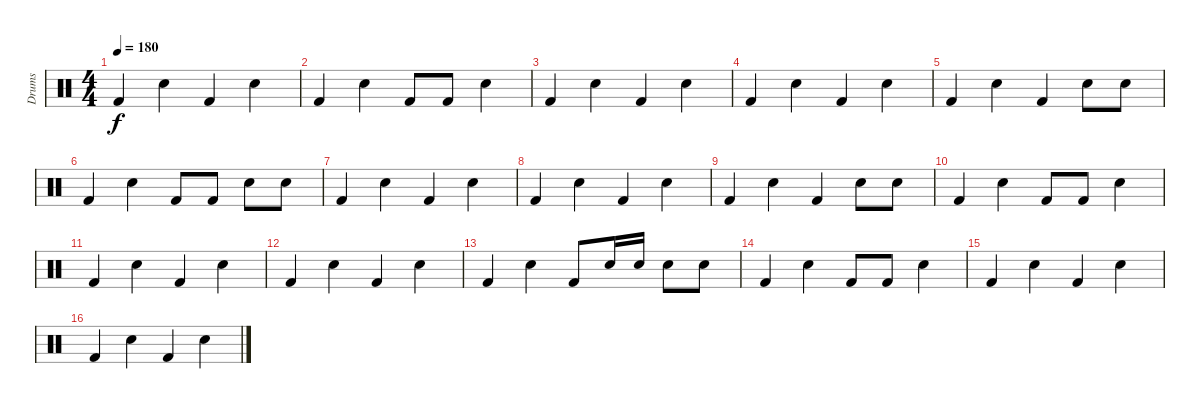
\track ("Drums" "Drums") {instrument percussion}
\staff {score}
\articulation defaults
\ts (4 4)
\tempo 180
\clef neutral
\ks c "Kick (hit) 2".4{dy f} "Snare (hit) 2".4 "Kick (hit) 2".4 "Snare (hit) 2".4
|
"Kick (hit) 2".4 "Snare (hit) 2".4 "Kick (hit) 2".8 "Kick (hit) 2".8 "Metronome (bell)".4 |
"Kick (hit) 2".4 "Snare (hit) 2".4 "Kick (hit) 2".4 "Snare (hit) 2".4 |
"Kick (hit) 2".4 "Snare (hit) 2".4 "Kick (hit) 2".4 "Snare (hit) 2".4 |
"Kick (hit) 2".4 "Snare (hit) 2".4 "Kick (hit) 2".4 "Snare (hit) 2".8 "Snare (hit) 2".8 |
"Kick (hit) 2".4 "Snare (hit) 2".4 "Kick (hit) 2".8 "Kick (hit) 2".8 "Snare (hit) 2".8 "Snare (hit) 2".8 |
"Kick (hit) 2".4 "Snare (hit) 2".4 "Kick (hit) 2".4 "Snare (hit) 2".4 |
"Kick (hit) 2".4 "Snare (hit) 2".4 "Kick (hit) 2".4 "Snare (hit) 2".4 |
"Kick (hit) 2".4 "Snare (hit) 2".4 "Kick (hit) 2".4 "Snare (hit) 2".8 "Snare (hit) 2".8 |
"Kick (hit) 2".4 "Snare (hit) 2".4 "Kick (hit) 2".8 "Kick (hit) 2".8 "Snare (hit) 2".4 |
"Kick (hit) 2".4 "Snare (hit) 2".4 "Kick (hit) 2".4 "Snare (hit) 2".4 |
"Kick (hit) 2".4 "Snare (hit) 2".4 "Kick (hit) 2".4 "Snare (hit) 2".4 |
"Kick (hit) 2".4 "Snare (hit) 2".4 "Kick (hit) 2".8 "Snare (hit) 2".16 "Snare (hit) 2".16 "Snare (hit) 2".8 "Snare (hit) 2".8 |
"Kick (hit) 2".4 "Snare (hit) 2".4 "Kick (hit) 2".8 "Kick (hit) 2".8 "Snare (hit) 2".4 |
"Kick (hit) 2".4 "Snare (hit) 2".4 "Kick (hit) 2".4 "Snare (hit) 2".4 |
"Kick (hit) 2".4 "Snare (hit) 2".4 "Kick (hit) 2".4 "Snare (hit) 2".4
